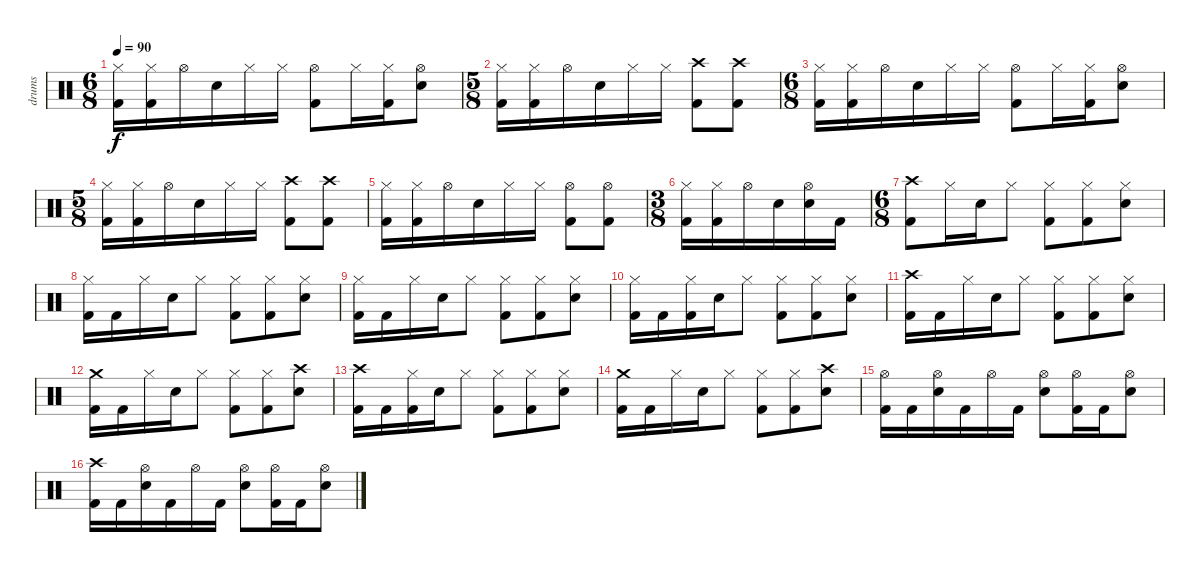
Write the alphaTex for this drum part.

\track ("drums" "drums") {instrument percussion}
\staff {score}
\articulation defaults
\ts (6 8)
\tempo 90
\clef neutral
\ks c
("Hi-Hat (closed)" "Kick (hit) 2").16{dy f} ("Hi-Hat (closed)" "Kick (hit) 2").16 "Hi-Hat (open)".16 "Electric Snare (hit)".16 "Hi-Hat (closed)".16 "Hi-Hat (closed)".16 ("Hi-Hat (open)" "Kick (hit) 2").8 "Hi-Hat (closed)".16 ("Hi-Hat (closed)" "Kick (hit) 2").16 ("Hi-Hat (open)" "Electric Snare (hit)").8 |
\ts (5 8)
("Hi-Hat (closed)" "Kick (hit) 2").16 ("Hi-Hat (closed)" "Kick (hit) 2").16 "Hi-Hat (open)".16 "Electric Snare (hit)".16 "Hi-Hat (closed)".16 "Hi-Hat (closed)".16 ("Crash high (hit)" "Kick (hit) 2").8 ("Crash high (hit)" "Kick (hit) 2").8 |
\ts (6 8)
("Hi-Hat (closed)" "Kick (hit) 2").16 ("Hi-Hat (closed)" "Kick (hit) 2").16 "Hi-Hat (open)".16 "Electric Snare (hit)".16 "Hi-Hat (closed)".16 "Hi-Hat (closed)".16 ("Hi-Hat (open)" "Kick (hit) 2").8 "Hi-Hat (closed)".16 ("Hi-Hat (closed)" "Kick (hit) 2").16 ("Hi-Hat (open)" "Electric Snare (hit)").8 |
\ts (5 8)
("Hi-Hat (closed)" "Kick (hit) 2").16 ("Hi-Hat (closed)" "Kick (hit) 2").16 "Hi-Hat (open)".16 "Electric Snare (hit)".16 "Hi-Hat (closed)".16 "Hi-Hat (closed)".16 ("Crash high (hit)" "Kick (hit) 2").8 ("Crash high (hit)" "Kick (hit) 2").8 |
("Hi-Hat (closed)" "Kick (hit) 2").16 ("Hi-Hat (closed)" "Kick (hit) 2").16 "Hi-Hat (open)".16 "Electric Snare (hit)".16 "Hi-Hat (closed)".16 "Hi-Hat (closed)".16 ("Hi-Hat (open)" "Kick (hit) 2").8 ("Hi-Hat (open)" "Kick (hit) 2").8 |
\ts (3 8)
("Hi-Hat (closed)" "Kick (hit) 2").16 ("Hi-Hat (closed)" "Kick (hit) 2").16 "Hi-Hat (open)".16 "Electric Snare (hit)".16 ("Hi-Hat (open)" "Electric Snare (hit)").16 "Kick (hit) 2".16 |
\ts (6 8)
("Crash high (hit)" "Kick (hit) 2").8 "Hi-Hat (closed)".16 "Electric Snare (hit)".16 "Hi-Hat (closed)".8 ("Hi-Hat (closed)" "Kick (hit) 2").8 ("Hi-Hat (closed)" "Kick (hit) 2").8 ("Hi-Hat (closed)" "Electric Snare (hit)").8 |
("Hi-Hat (closed)" "Kick (hit) 2").16 "Kick (hit) 2".16 "Hi-Hat (closed)".16 "Electric Snare (hit)".16 "Hi-Hat (closed)".8 ("Hi-Hat (closed)" "Kick (hit) 2").8 ("Hi-Hat (closed)" "Kick (hit) 2").8 ("Hi-Hat (closed)" "Electric Snare (hit)").8 |
("Hi-Hat (closed)" "Kick (hit) 2").16 "Kick (hit) 2".16 "Hi-Hat (closed)".16 "Electric Snare (hit)".16 "Hi-Hat (closed)".8 ("Hi-Hat (closed)" "Kick (hit) 2").8 ("Hi-Hat (closed)" "Kick (hit) 2").8 ("Hi-Hat (closed)" "Electric Snare (hit)").8 |
("Hi-Hat (closed)" "Kick (hit) 2").16 "Kick (hit) 2".16 ("Hi-Hat (closed)" "Kick (hit) 2").16 "Electric Snare (hit)".16 "Hi-Hat (closed)".8 ("Hi-Hat (closed)" "Kick (hit) 2").8 ("Hi-Hat (closed)" "Kick (hit) 2").8 ("Hi-Hat (closed)" "Electric Snare (hit)").8 |
("Crash high (hit)" "Kick (hit) 2").16 "Kick (hit) 2".16 "Hi-Hat (closed)".16 "Electric Snare (hit)".16 "Hi-Hat (closed)".8 ("Hi-Hat (closed)" "Kick (hit) 2").8 ("Hi-Hat (closed)" "Kick (hit) 2").8 ("Hi-Hat (closed)" "Electric Snare (hit)").8 |
("Crash medium (hit)" "Kick (hit) 2").16 "Kick (hit) 2".16 "Hi-Hat (closed)".16 "Electric Snare (hit)".16 "Hi-Hat (closed)".8 ("Hi-Hat (closed)" "Kick (hit) 2").8 ("Hi-Hat (closed)" "Kick (hit) 2").8 ("Crash high (hit)" "Electric Snare (hit)").8 |
("Crash high (hit)" "Kick (hit) 2").16 "Kick (hit) 2".16 ("Hi-Hat (closed)" "Kick (hit) 2").16 "Electric Snare (hit)".16 "Hi-Hat (closed)".8 ("Hi-Hat (closed)" "Kick (hit) 2").8 ("Hi-Hat (closed)" "Kick (hit) 2").8 ("Hi-Hat (closed)" "Electric Snare (hit)").8 |
("Crash medium (hit)" "Kick (hit) 2").16 "Kick (hit) 2".16 "Hi-Hat (closed)".16 "Electric Snare (hit)".16 "Hi-Hat (closed)".8 ("Hi-Hat (closed)" "Kick (hit) 2").8 ("Hi-Hat (closed)" "Kick (hit) 2").8 ("Crash high (hit)" "Electric Snare (hit)").8 |
("Hi-Hat (open)" "Kick (hit) 2").16 "Kick (hit) 2".16 ("Hi-Hat (open)" "Electric Snare (hit)").16 "Kick (hit) 2".16 "Hi-Hat (open)".16 "Kick (hit) 2".16 ("Hi-Hat (open)" "Electric Snare (hit)").8 ("Hi-Hat (open)" "Kick (hit) 2").16 "Kick (hit) 2".16 ("Hi-Hat (open)" "Electric Snare (hit)").8 |
("Crash high (hit)" "Kick (hit) 2").16 "Kick (hit) 2".16 ("Hi-Hat (open)" "Electric Snare (hit)").16 "Kick (hit) 2".16 "Hi-Hat (open)".16 "Kick (hit) 2".16 ("Hi-Hat (open)" "Electric Snare (hit)").8 ("Hi-Hat (open)" "Kick (hit) 2").16 "Kick (hit) 2".16 ("Hi-Hat (open)" "Electric Snare (hit)").8
